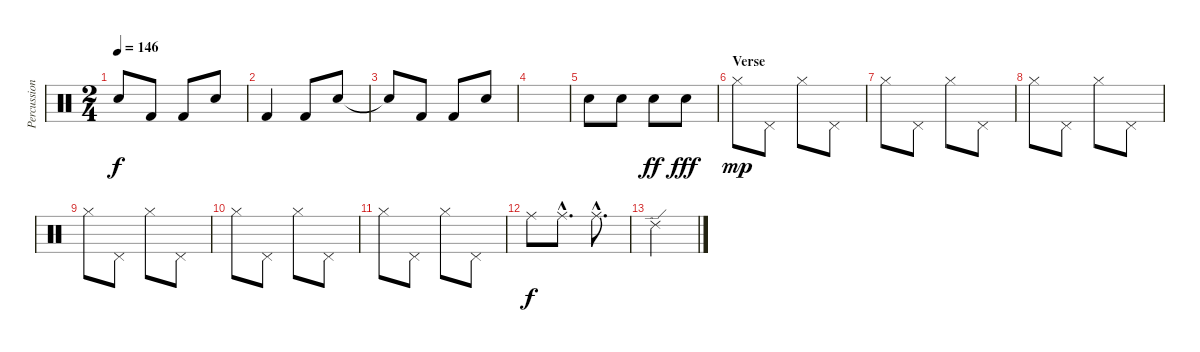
\track ("Percussion" "Percussion") {instrument percussion}
\staff {score}
\articulation defaults
\ts (2 4)
\tempo 146
\clef neutral
\ks c "Snare (hit)"{t}.8{dy f} "Kick (hit) 2".8 "Kick (hit) 2".8 "Electric Snare (hit)".8
|
"Kick (hit) 2".4 "Kick (hit) 2".8 "Electric Snare (hit)".8 |
"Snare (hit)"{t}.8 "Kick (hit) 2".8 "Kick (hit) 2".8 "Electric Snare (hit)".8 |
|
"Electric Snare (hit)".8 "Electric Snare (hit)".8 "Electric Snare (hit)".8{dy ff} "Electric Snare (hit)".8{dy fff} |
\section ("" "Verse")
"Hi-Hat (closed)".8{dy mp} "Pedal Hi-Hat (hit)".8 "Hi-Hat (closed)".8 "Pedal Hi-Hat (hit)".8 |
"Hi-Hat (closed)".8 "Pedal Hi-Hat (hit)".8 "Hi-Hat (closed)".8 "Pedal Hi-Hat (hit)".8 |
"Hi-Hat (closed)".8 "Pedal Hi-Hat (hit)".8 "Hi-Hat (closed)".8 "Pedal Hi-Hat (hit)".8 |
"Hi-Hat (closed)".8 "Pedal Hi-Hat (hit)".8 "Hi-Hat (closed)".8 "Pedal Hi-Hat (hit)".8 |
"Hi-Hat (closed)".8 "Pedal Hi-Hat (hit)".8 "Hi-Hat (closed)".8 "Pedal Hi-Hat (hit)".8 |
"Hi-Hat (closed)".8 "Pedal Hi-Hat (hit)".8 "Hi-Hat (closed)".8 "Pedal Hi-Hat (hit)".8 |
"Ride (middle)".8{dy f} "Ride (middle)"{hac}.8{d} "Ride (middle)"{hac}.8{d} |
"Ride (edge) 2".2
